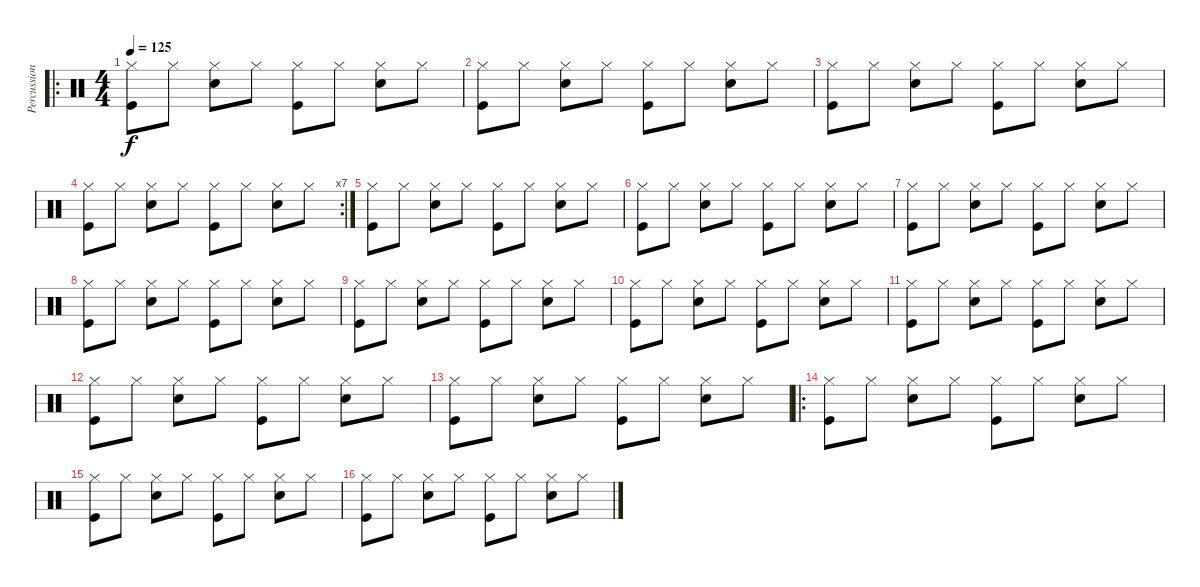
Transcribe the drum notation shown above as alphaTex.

\track ("Percussion" "Percussion") {instrument percussion}
\staff {score}
\articulation defaults
\ro
\ts (4 4)
\tempo 125
\clef neutral
\ks c
("Hi-Hat (closed)" "Kick (hit)").8{dy f} "Hi-Hat (closed)".8 ("Hi-Hat (closed)" "Snare (hit) 2").8 "Hi-Hat (closed)".8 ("Hi-Hat (closed)" "Kick (hit)").8 "Hi-Hat (closed)".8 ("Hi-Hat (closed)" "Snare (hit) 2").8 "Hi-Hat (closed)".8 |
("Hi-Hat (closed)" "Kick (hit)").8 "Hi-Hat (closed)".8 ("Hi-Hat (closed)" "Snare (hit) 2").8 "Hi-Hat (closed)".8 ("Hi-Hat (closed)" "Kick (hit)").8 "Hi-Hat (closed)".8 ("Hi-Hat (closed)" "Snare (hit) 2").8 "Hi-Hat (closed)".8 |
("Hi-Hat (closed)" "Kick (hit)").8 "Hi-Hat (closed)".8 ("Hi-Hat (closed)" "Snare (hit) 2").8 "Hi-Hat (closed)".8 ("Hi-Hat (closed)" "Kick (hit)").8 "Hi-Hat (closed)".8 ("Hi-Hat (closed)" "Snare (hit) 2").8 "Hi-Hat (closed)".8 |
\rc 7
("Hi-Hat (closed)" "Kick (hit)").8 "Hi-Hat (closed)".8 ("Hi-Hat (closed)" "Snare (hit) 2").8 "Hi-Hat (closed)".8 ("Hi-Hat (closed)" "Kick (hit)").8 "Hi-Hat (closed)".8 ("Hi-Hat (closed)" "Snare (hit) 2").8 "Hi-Hat (closed)".8 |
("Hi-Hat (closed)" "Kick (hit)").8 "Hi-Hat (closed)".8 ("Hi-Hat (closed)" "Snare (hit) 2").8 "Hi-Hat (closed)".8 ("Hi-Hat (closed)" "Kick (hit)").8 "Hi-Hat (closed)".8 ("Hi-Hat (closed)" "Snare (hit) 2").8 "Hi-Hat (closed)".8 |
("Hi-Hat (closed)" "Kick (hit)").8 "Hi-Hat (closed)".8 ("Hi-Hat (closed)" "Snare (hit) 2").8 "Hi-Hat (closed)".8 ("Hi-Hat (closed)" "Kick (hit)").8 "Hi-Hat (closed)".8 ("Hi-Hat (closed)" "Snare (hit) 2").8 "Hi-Hat (closed)".8 |
("Hi-Hat (closed)" "Kick (hit)").8 "Hi-Hat (closed)".8 ("Hi-Hat (closed)" "Snare (hit) 2").8 "Hi-Hat (closed)".8 ("Hi-Hat (closed)" "Kick (hit)").8 "Hi-Hat (closed)".8 ("Hi-Hat (closed)" "Snare (hit) 2").8 "Hi-Hat (closed)".8 |
("Hi-Hat (closed)" "Kick (hit)").8 "Hi-Hat (closed)".8 ("Hi-Hat (closed)" "Snare (hit) 2").8 "Hi-Hat (closed)".8 ("Hi-Hat (closed)" "Kick (hit)").8 "Hi-Hat (closed)".8 ("Hi-Hat (closed)" "Snare (hit) 2").8 "Hi-Hat (closed)".8 |
("Hi-Hat (closed)" "Kick (hit)").8 "Hi-Hat (closed)".8 ("Hi-Hat (closed)" "Snare (hit) 2").8 "Hi-Hat (closed)".8 ("Hi-Hat (closed)" "Kick (hit)").8 "Hi-Hat (closed)".8 ("Hi-Hat (closed)" "Snare (hit) 2").8 "Hi-Hat (closed)".8 |
("Hi-Hat (closed)" "Kick (hit)").8 "Hi-Hat (closed)".8 ("Hi-Hat (closed)" "Snare (hit) 2").8 "Hi-Hat (closed)".8 ("Hi-Hat (closed)" "Kick (hit)").8 "Hi-Hat (closed)".8 ("Hi-Hat (closed)" "Snare (hit) 2").8 "Hi-Hat (closed)".8 |
("Hi-Hat (closed)" "Kick (hit)").8 "Hi-Hat (closed)".8 ("Hi-Hat (closed)" "Snare (hit) 2").8 "Hi-Hat (closed)".8 ("Hi-Hat (closed)" "Kick (hit)").8 "Hi-Hat (closed)".8 ("Hi-Hat (closed)" "Snare (hit) 2").8 "Hi-Hat (closed)".8 |
("Hi-Hat (closed)" "Kick (hit)").8 "Hi-Hat (closed)".8 ("Hi-Hat (closed)" "Snare (hit) 2").8 "Hi-Hat (closed)".8 ("Hi-Hat (closed)" "Kick (hit)").8 "Hi-Hat (closed)".8 ("Hi-Hat (closed)" "Snare (hit) 2").8 "Hi-Hat (closed)".8 |
("Hi-Hat (closed)" "Kick (hit)").8 "Hi-Hat (closed)".8 ("Hi-Hat (closed)" "Snare (hit) 2").8 "Hi-Hat (closed)".8 ("Hi-Hat (closed)" "Kick (hit)").8 "Hi-Hat (closed)".8 ("Hi-Hat (closed)" "Snare (hit) 2").8 "Hi-Hat (closed)".8 |
\ro
("Hi-Hat (closed)" "Kick (hit)").8 "Hi-Hat (closed)".8 ("Hi-Hat (closed)" "Snare (hit) 2").8 "Hi-Hat (closed)".8 ("Hi-Hat (closed)" "Kick (hit)").8 "Hi-Hat (closed)".8 ("Hi-Hat (closed)" "Snare (hit) 2").8 "Hi-Hat (closed)".8 |
("Hi-Hat (closed)" "Kick (hit)").8 "Hi-Hat (closed)".8 ("Hi-Hat (closed)" "Snare (hit) 2").8 "Hi-Hat (closed)".8 ("Hi-Hat (closed)" "Kick (hit)").8 "Hi-Hat (closed)".8 ("Hi-Hat (closed)" "Snare (hit) 2").8 "Hi-Hat (closed)".8 |
("Hi-Hat (closed)" "Kick (hit)").8 "Hi-Hat (closed)".8 ("Hi-Hat (closed)" "Snare (hit) 2").8 "Hi-Hat (closed)".8 ("Hi-Hat (closed)" "Kick (hit)").8 "Hi-Hat (closed)".8 ("Hi-Hat (closed)" "Snare (hit) 2").8 "Hi-Hat (closed)".8
